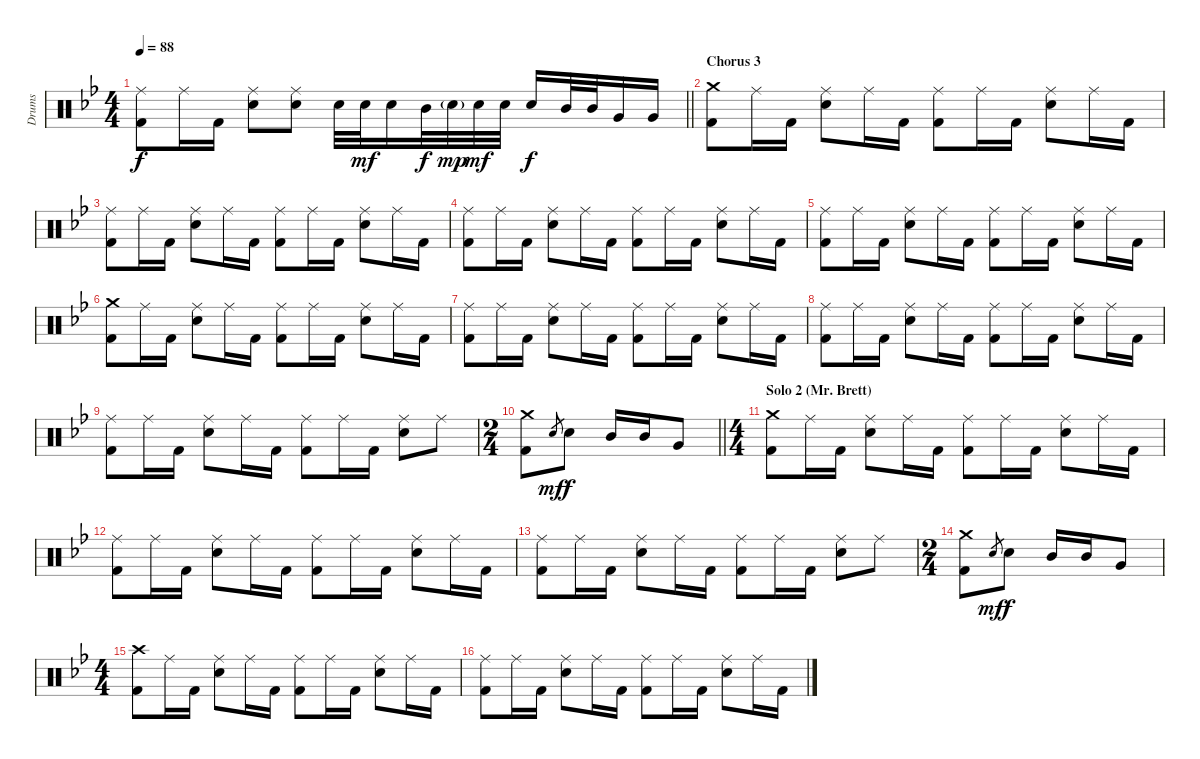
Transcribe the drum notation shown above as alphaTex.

\track ("Drums" "Drums") {instrument percussion}
\staff {score}
\articulation defaults
\ts (4 4)
\tempo 88
\clef neutral
\barLineRight lightlight
\ks gminor
("Ride (middle)" "Kick (hit) 2").8{dy f} "Ride (middle)".16 "Kick (hit) 2".16 ("Ride (middle)" "Electric Snare (hit)").8 ("Ride (middle)" "Electric Snare (hit)").8 "Electric Snare (hit)".32 "Electric Snare (hit)".32{dy mf} "Electric Snare (hit)".16 "Mid Tom (hit)".32{dy f} "Electric Snare (hit)"{g}.32{dy mp} "Electric Snare (hit)".32{dy mf} "Electric Snare (hit)".32 "Electric Snare (hit)".16{dy f} "Mid Tom (hit)".32 "Mid Tom (hit)".32 "Very Low Tom (hit)".16 "Very Low Tom (hit)".16 |
\section ("" "Chorus 3")
("Crash medium (hit)" "Kick (hit) 2").8 "Ride (middle)".16 "Kick (hit) 2".16 ("Ride (middle)" "Electric Snare (hit)").8 "Ride (middle)".16 "Kick (hit) 2".16 ("Ride (middle)" "Kick (hit) 2").8 "Ride (middle)".16 "Kick (hit) 2".16 ("Ride (middle)" "Electric Snare (hit)").8 "Ride (middle)".16 "Kick (hit) 2".16 |
("Ride (middle)" "Kick (hit) 2").8 "Ride (middle)".16 "Kick (hit) 2".16 ("Ride (middle)" "Electric Snare (hit)").8 "Ride (middle)".16 "Kick (hit) 2".16 ("Ride (middle)" "Kick (hit) 2").8 "Ride (middle)".16 "Kick (hit) 2".16 ("Ride (middle)" "Electric Snare (hit)").8 "Ride (middle)".16 "Kick (hit) 2".16 |
("Ride (middle)" "Kick (hit) 2").8 "Ride (middle)".16 "Kick (hit) 2".16 ("Ride (middle)" "Electric Snare (hit)").8 "Ride (middle)".16 "Kick (hit) 2".16 ("Ride (middle)" "Kick (hit) 2").8 "Ride (middle)".16 "Kick (hit) 2".16 ("Ride (middle)" "Electric Snare (hit)").8 "Ride (middle)".16 "Kick (hit) 2".16 |
("Ride (middle)" "Kick (hit) 2").8 "Ride (middle)".16 "Kick (hit) 2".16 ("Ride (middle)" "Electric Snare (hit)").8 "Ride (middle)".16 "Kick (hit) 2".16 ("Ride (middle)" "Kick (hit) 2").8 "Ride (middle)".16 "Kick (hit) 2".16 ("Ride (middle)" "Electric Snare (hit)").8 "Ride (middle)".16 "Kick (hit) 2".16 |
("Crash medium (hit)" "Kick (hit) 2").8 "Ride (middle)".16 "Kick (hit) 2".16 ("Ride (middle)" "Electric Snare (hit)").8 "Ride (middle)".16 "Kick (hit) 2".16 ("Ride (middle)" "Kick (hit) 2").8 "Ride (middle)".16 "Kick (hit) 2".16 ("Ride (middle)" "Electric Snare (hit)").8 "Ride (middle)".16 "Kick (hit) 2".16 |
("Ride (middle)" "Kick (hit) 2").8 "Ride (middle)".16 "Kick (hit) 2".16 ("Ride (middle)" "Electric Snare (hit)").8 "Ride (middle)".16 "Kick (hit) 2".16 ("Ride (middle)" "Kick (hit) 2").8 "Ride (middle)".16 "Kick (hit) 2".16 ("Ride (middle)" "Electric Snare (hit)").8 "Ride (middle)".16 "Kick (hit) 2".16 |
("Ride (middle)" "Kick (hit) 2").8 "Ride (middle)".16 "Kick (hit) 2".16 ("Ride (middle)" "Electric Snare (hit)").8 "Ride (middle)".16 "Kick (hit) 2".16 ("Ride (middle)" "Kick (hit) 2").8 "Ride (middle)".16 "Kick (hit) 2".16 ("Ride (middle)" "Electric Snare (hit)").8 "Ride (middle)".16 "Kick (hit) 2".16 |
("Ride (middle)" "Kick (hit) 2").8 "Ride (middle)".16 "Kick (hit) 2".16 ("Ride (middle)" "Electric Snare (hit)").8 "Ride (middle)".16 "Kick (hit) 2".16 ("Ride (middle)" "Kick (hit) 2").8 "Ride (middle)".16 "Kick (hit) 2".16 ("Ride (middle)" "Electric Snare (hit)").8 "Ride (middle)".8 |
\ts (2 4)
\barLineRight lightlight
("Crash medium (hit)" "Kick (hit) 2").8 "Electric Snare (hit)".8{gr dy mf} "Electric Snare (hit)".8{dy f} "Mid Tom (hit)".16 "Mid Tom (hit)".16 "Very Low Tom (hit)".8 |
\ts (4 4)
\section ("" "Solo 2 (Mr. Brett)")
("Crash medium (hit)" "Kick (hit) 2").8 "Ride (middle)".16 "Kick (hit) 2".16 ("Ride (middle)" "Electric Snare (hit)").8 "Ride (middle)".16 "Kick (hit) 2".16 ("Ride (middle)" "Kick (hit) 2").8 "Ride (middle)".16 "Kick (hit) 2".16 ("Ride (middle)" "Electric Snare (hit)").8 "Ride (middle)".16 "Kick (hit) 2".16 |
("Ride (middle)" "Kick (hit) 2").8 "Ride (middle)".16 "Kick (hit) 2".16 ("Ride (middle)" "Electric Snare (hit)").8 "Ride (middle)".16 "Kick (hit) 2".16 ("Ride (middle)" "Kick (hit) 2").8 "Ride (middle)".16 "Kick (hit) 2".16 ("Ride (middle)" "Electric Snare (hit)").8 "Ride (middle)".16 "Kick (hit) 2".16 |
("Ride (middle)" "Kick (hit) 2").8 "Ride (middle)".16 "Kick (hit) 2".16 ("Ride (middle)" "Electric Snare (hit)").8 "Ride (middle)".16 "Kick (hit) 2".16 ("Ride (middle)" "Kick (hit) 2").8 "Ride (middle)".16 "Kick (hit) 2".16 ("Ride (middle)" "Electric Snare (hit)").8 "Ride (middle)".8 |
\ts (2 4)
("Crash medium (hit)" "Kick (hit) 2").8 "Electric Snare (hit)".8{gr dy mf} "Electric Snare (hit)".8{dy f} "Mid Tom (hit)".16 "Mid Tom (hit)".16 "Very Low Tom (hit)".8 |
\ts (4 4)
("Crash high (hit)" "Kick (hit) 2").8 "Ride (middle)".16 "Kick (hit) 2".16 ("Ride (middle)" "Electric Snare (hit)").8 "Ride (middle)".16 "Kick (hit) 2".16 ("Ride (middle)" "Kick (hit) 2").8 "Ride (middle)".16 "Kick (hit) 2".16 ("Ride (middle)" "Electric Snare (hit)").8 "Ride (middle)".16 "Kick (hit) 2".16 |
("Ride (middle)" "Kick (hit) 2").8 "Ride (middle)".16 "Kick (hit) 2".16 ("Ride (middle)" "Electric Snare (hit)").8 "Ride (middle)".16 "Kick (hit) 2".16 ("Ride (middle)" "Kick (hit) 2").8 "Ride (middle)".16 "Kick (hit) 2".16 ("Ride (middle)" "Electric Snare (hit)").8 "Ride (middle)".16 "Kick (hit) 2".16
